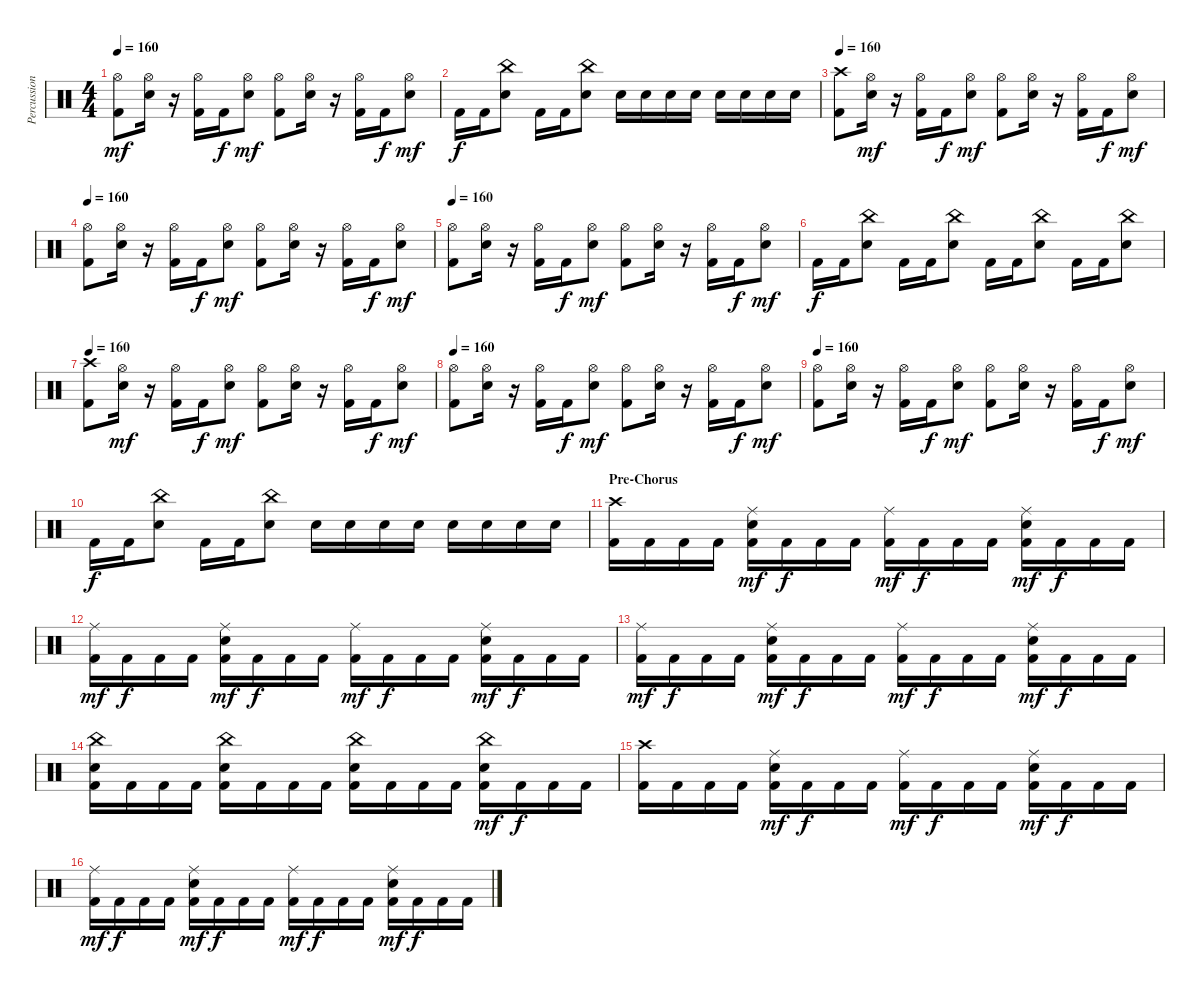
\track ("Percussion" "Percussion") {instrument percussion}
\staff {score}
\articulation defaults
\ts (4 4)
\tempo 160
\clef neutral
\ks c
("Hi-Hat (open)" "Kick (hit) 2").8{dy mf} ("Hi-Hat (open)" "Electric Snare (hit)").16 r.16 ("Hi-Hat (open)" "Kick (hit) 2").16 "Kick (hit) 2".16{dy f} ("Hi-Hat (open)" "Electric Snare (hit)").8{dy mf} ("Hi-Hat (open)" "Kick (hit) 2").8 ("Hi-Hat (open)" "Electric Snare (hit)").16 r.16 ("Hi-Hat (open)" "Kick (hit) 2").16 "Kick (hit) 2".16{dy f} ("Hi-Hat (open)" "Electric Snare (hit)").8{dy mf} |
"Kick (hit) 2".16{dy f} "Kick (hit) 2".16 ("China (hit)" "Electric Snare (hit)").8 "Kick (hit) 2".16 "Kick (hit) 2".16 ("China (hit)" "Electric Snare (hit)").8 "Electric Snare (hit)".16 "Electric Snare (hit)".16 "Electric Snare (hit)".16 "Electric Snare (hit)".16 "Electric Snare (hit)".16 "Electric Snare (hit)".16 "Electric Snare (hit)".16 "Electric Snare (hit)".16 |
\tempo 160
("Crash high (hit)" "Kick (hit) 2").8 ("Hi-Hat (open)" "Electric Snare (hit)").16{dy mf} r.16 ("Hi-Hat (open)" "Kick (hit) 2").16 "Kick (hit) 2".16{dy f} ("Hi-Hat (open)" "Electric Snare (hit)").8{dy mf} ("Hi-Hat (open)" "Kick (hit) 2").8 ("Hi-Hat (open)" "Electric Snare (hit)").16 r.16 ("Hi-Hat (open)" "Kick (hit) 2").16 "Kick (hit) 2".16{dy f} ("Hi-Hat (open)" "Electric Snare (hit)").8{dy mf} |
\tempo 160
("Hi-Hat (open)" "Kick (hit) 2").8 ("Hi-Hat (open)" "Electric Snare (hit)").16 r.16 ("Hi-Hat (open)" "Kick (hit) 2").16 "Kick (hit) 2".16{dy f} ("Hi-Hat (open)" "Electric Snare (hit)").8{dy mf} ("Hi-Hat (open)" "Kick (hit) 2").8 ("Hi-Hat (open)" "Electric Snare (hit)").16 r.16 ("Hi-Hat (open)" "Kick (hit) 2").16 "Kick (hit) 2".16{dy f} ("Hi-Hat (open)" "Electric Snare (hit)").8{dy mf} |
\tempo 160
("Hi-Hat (open)" "Kick (hit) 2").8 ("Hi-Hat (open)" "Electric Snare (hit)").16 r.16 ("Hi-Hat (open)" "Kick (hit) 2").16 "Kick (hit) 2".16{dy f} ("Hi-Hat (open)" "Electric Snare (hit)").8{dy mf} ("Hi-Hat (open)" "Kick (hit) 2").8 ("Hi-Hat (open)" "Electric Snare (hit)").16 r.16 ("Hi-Hat (open)" "Kick (hit) 2").16 "Kick (hit) 2".16{dy f} ("Hi-Hat (open)" "Electric Snare (hit)").8{dy mf} |
"Kick (hit) 2".16{dy f} "Kick (hit) 2".16 ("China (hit)" "Electric Snare (hit)").8 "Kick (hit) 2".16 "Kick (hit) 2".16 ("China (hit)" "Electric Snare (hit)").8 "Kick (hit) 2".16 "Kick (hit) 2".16 ("China (hit)" "Electric Snare (hit)").8 "Kick (hit) 2".16 "Kick (hit) 2".16 ("China (hit)" "Electric Snare (hit)").8 |
\tempo 160
("Crash high (hit)" "Kick (hit) 2").8 ("Hi-Hat (open)" "Electric Snare (hit)").16{dy mf} r.16 ("Hi-Hat (open)" "Kick (hit) 2").16 "Kick (hit) 2".16{dy f} ("Hi-Hat (open)" "Electric Snare (hit)").8{dy mf} ("Hi-Hat (open)" "Kick (hit) 2").8 ("Hi-Hat (open)" "Electric Snare (hit)").16 r.16 ("Hi-Hat (open)" "Kick (hit) 2").16 "Kick (hit) 2".16{dy f} ("Hi-Hat (open)" "Electric Snare (hit)").8{dy mf} |
\tempo 160
("Hi-Hat (open)" "Kick (hit) 2").8 ("Hi-Hat (open)" "Electric Snare (hit)").16 r.16 ("Hi-Hat (open)" "Kick (hit) 2").16 "Kick (hit) 2".16{dy f} ("Hi-Hat (open)" "Electric Snare (hit)").8{dy mf} ("Hi-Hat (open)" "Kick (hit) 2").8 ("Hi-Hat (open)" "Electric Snare (hit)").16 r.16 ("Hi-Hat (open)" "Kick (hit) 2").16 "Kick (hit) 2".16{dy f} ("Hi-Hat (open)" "Electric Snare (hit)").8{dy mf} |
\tempo 160
("Hi-Hat (open)" "Kick (hit) 2").8 ("Hi-Hat (open)" "Electric Snare (hit)").16 r.16 ("Hi-Hat (open)" "Kick (hit) 2").16 "Kick (hit) 2".16{dy f} ("Hi-Hat (open)" "Electric Snare (hit)").8{dy mf} ("Hi-Hat (open)" "Kick (hit) 2").8 ("Hi-Hat (open)" "Electric Snare (hit)").16 r.16 ("Hi-Hat (open)" "Kick (hit) 2").16 "Kick (hit) 2".16{dy f} ("Hi-Hat (open)" "Electric Snare (hit)").8{dy mf} |
"Kick (hit) 2".16{dy f} "Kick (hit) 2".16 ("China (hit)" "Electric Snare (hit)").8 "Kick (hit) 2".16 "Kick (hit) 2".16 ("China (hit)" "Electric Snare (hit)").8 "Electric Snare (hit)".16 "Electric Snare (hit)".16 "Electric Snare (hit)".16 "Electric Snare (hit)".16 "Electric Snare (hit)".16 "Electric Snare (hit)".16 "Electric Snare (hit)".16 "Electric Snare (hit)".16 |
\section ("" "Pre-Chorus")
("Crash high (hit)" "Kick (hit) 2").16 "Kick (hit) 2".16 "Kick (hit) 2".16 "Kick (hit) 2".16 ("Ride (middle)" "Electric Snare (hit)" "Kick (hit) 2").16{dy mf} "Kick (hit) 2".16{dy f} "Kick (hit) 2".16 "Kick (hit) 2".16 ("Ride (middle)" "Kick (hit) 2").16{dy mf} "Kick (hit) 2".16{dy f} "Kick (hit) 2".16 "Kick (hit) 2".16 ("Ride (middle)" "Electric Snare (hit)" "Kick (hit) 2").16{dy mf} "Kick (hit) 2".16{dy f} "Kick (hit) 2".16 "Kick (hit) 2".16 |
("Ride (middle)" "Kick (hit) 2").16{dy mf} "Kick (hit) 2".16{dy f} "Kick (hit) 2".16 "Kick (hit) 2".16 ("Ride (middle)" "Electric Snare (hit)" "Kick (hit) 2").16{dy mf} "Kick (hit) 2".16{dy f} "Kick (hit) 2".16 "Kick (hit) 2".16 ("Ride (middle)" "Kick (hit) 2").16{dy mf} "Kick (hit) 2".16{dy f} "Kick (hit) 2".16 "Kick (hit) 2".16 ("Ride (middle)" "Electric Snare (hit)" "Kick (hit) 2").16{dy mf} "Kick (hit) 2".16{dy f} "Kick (hit) 2".16 "Kick (hit) 2".16 |
("Ride (middle)" "Kick (hit) 2").16{dy mf} "Kick (hit) 2".16{dy f} "Kick (hit) 2".16 "Kick (hit) 2".16 ("Ride (middle)" "Electric Snare (hit)" "Kick (hit) 2").16{dy mf} "Kick (hit) 2".16{dy f} "Kick (hit) 2".16 "Kick (hit) 2".16 ("Ride (middle)" "Kick (hit) 2").16{dy mf} "Kick (hit) 2".16{dy f} "Kick (hit) 2".16 "Kick (hit) 2".16 ("Ride (middle)" "Electric Snare (hit)" "Kick (hit) 2").16{dy mf} "Kick (hit) 2".16{dy f} "Kick (hit) 2".16 "Kick (hit) 2".16 |
("China (hit)" "Electric Snare (hit)" "Kick (hit) 2").16 "Kick (hit) 2".16 "Kick (hit) 2".16 "Kick (hit) 2".16 ("China (hit)" "Electric Snare (hit)" "Kick (hit) 2").16 "Kick (hit) 2".16 "Kick (hit) 2".16 "Kick (hit) 2".16 ("China (hit)" "Electric Snare (hit)" "Kick (hit) 2").16 "Kick (hit) 2".16 "Kick (hit) 2".16 "Kick (hit) 2".16 ("China (hit)" "Electric Snare (hit)" "Kick (hit) 2").16{dy mf} "Kick (hit) 2".16{dy f} "Kick (hit) 2".16 "Kick (hit) 2".16 |
("Crash high (hit)" "Kick (hit) 2").16 "Kick (hit) 2".16 "Kick (hit) 2".16 "Kick (hit) 2".16 ("Ride (middle)" "Electric Snare (hit)" "Kick (hit) 2").16{dy mf} "Kick (hit) 2".16{dy f} "Kick (hit) 2".16 "Kick (hit) 2".16 ("Ride (middle)" "Kick (hit) 2").16{dy mf} "Kick (hit) 2".16{dy f} "Kick (hit) 2".16 "Kick (hit) 2".16 ("Ride (middle)" "Electric Snare (hit)" "Kick (hit) 2").16{dy mf} "Kick (hit) 2".16{dy f} "Kick (hit) 2".16 "Kick (hit) 2".16 |
("Ride (middle)" "Kick (hit) 2").16{dy mf} "Kick (hit) 2".16{dy f} "Kick (hit) 2".16 "Kick (hit) 2".16 ("Ride (middle)" "Electric Snare (hit)" "Kick (hit) 2").16{dy mf} "Kick (hit) 2".16{dy f} "Kick (hit) 2".16 "Kick (hit) 2".16 ("Ride (middle)" "Kick (hit) 2").16{dy mf} "Kick (hit) 2".16{dy f} "Kick (hit) 2".16 "Kick (hit) 2".16 ("Ride (middle)" "Electric Snare (hit)" "Kick (hit) 2").16{dy mf} "Kick (hit) 2".16{dy f} "Kick (hit) 2".16 "Kick (hit) 2".16
